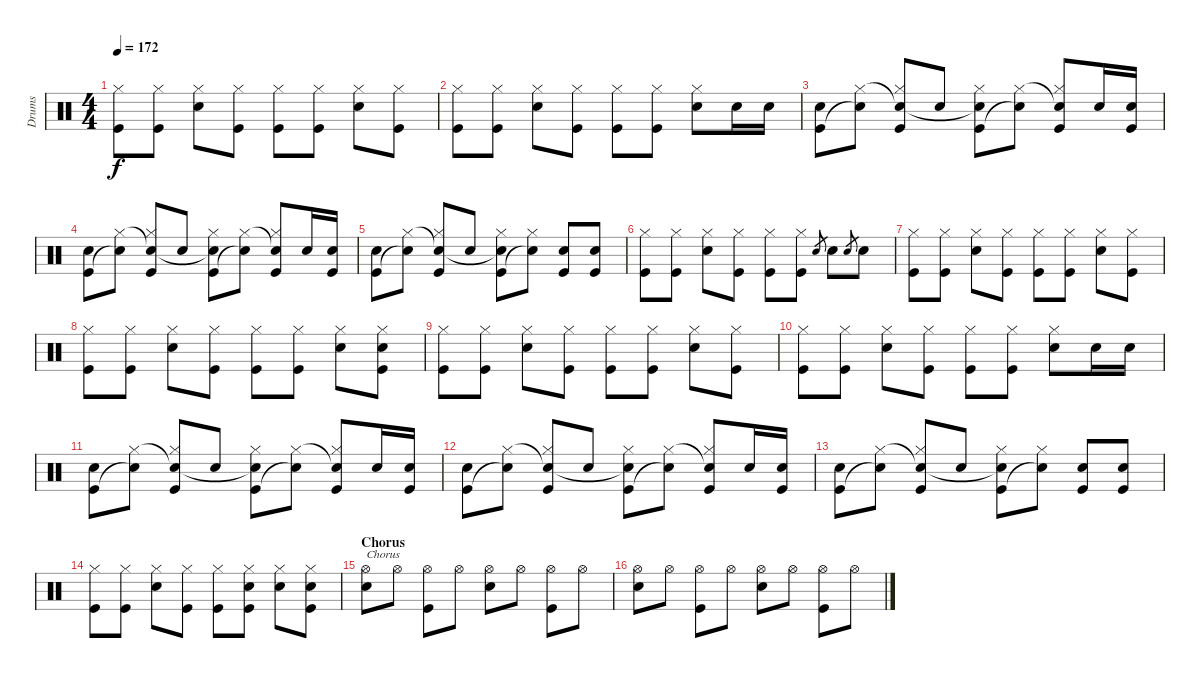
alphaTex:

\track ("Drums" "Drums") {instrument percussion}
\staff {score}
\articulation defaults
\ts (4 4)
\tempo 172
\clef neutral
\ks c
("Kick (hit)" "Hi-Hat (closed)").8{dy f} ("Kick (hit)" "Hi-Hat (closed)").8 ("Snare (hit) 2" "Hi-Hat (closed)").8 ("Kick (hit)" "Hi-Hat (closed)").8 ("Kick (hit)" "Hi-Hat (closed)").8 ("Kick (hit)" "Hi-Hat (closed)").8 ("Snare (hit) 2" "Hi-Hat (closed)").8 ("Kick (hit)" "Hi-Hat (closed)").8 |
("Kick (hit)" "Hi-Hat (closed)").8 ("Kick (hit)" "Hi-Hat (closed)").8 ("Snare (hit) 2" "Hi-Hat (closed)").8 ("Kick (hit)" "Hi-Hat (closed)").8 ("Kick (hit)" "Hi-Hat (closed)").8 ("Kick (hit)" "Hi-Hat (closed)").8 ("Snare (hit) 2" "Hi-Hat (closed)").8 "Snare (hit) 2".16 "Snare (hit) 2".16 |
("Kick (hit)" "Snare (hit) 2").8 ("Snare (hit)"{t} "Hi-Hat (closed)").8 ("Kick (hit)" "Snare (hit) 2"{t} "Hi-Hat (closed)").8 "Snare (hit) 2".8 ("Kick (hit)" "Snare (hit)"{t} "Hi-Hat (closed)").8 ("Snare (hit)"{t} "Hi-Hat (closed)").8 ("Kick (hit)" "Snare (hit)"{t} "Hi-Hat (closed)").8 "Snare (hit) 2".16 ("Kick (hit)" "Snare (hit) 2").16 |
("Kick (hit)" "Snare (hit) 2").8 ("Snare (hit)"{t} "Hi-Hat (closed)").8 ("Kick (hit)" "Snare (hit) 2"{t} "Hi-Hat (closed)").8 "Snare (hit) 2".8 ("Kick (hit)" "Snare (hit)"{t} "Hi-Hat (closed)").8 ("Snare (hit)"{t} "Hi-Hat (closed)").8 ("Kick (hit)" "Snare (hit)"{t} "Hi-Hat (closed)").8 "Snare (hit) 2".16 ("Kick (hit)" "Snare (hit) 2").16 |
("Kick (hit)" "Snare (hit) 2").8 ("Snare (hit)"{t} "Hi-Hat (closed)").8 ("Kick (hit)" "Snare (hit) 2"{t} "Hi-Hat (closed)").8 "Snare (hit) 2".8 ("Kick (hit)" "Snare (hit)"{t} "Hi-Hat (closed)").8 ("Snare (hit)"{t} "Hi-Hat (closed)").8 ("Kick (hit)" "Snare (hit) 2").8 ("Kick (hit)" "Snare (hit) 2").8 |
("Kick (hit)" "Hi-Hat (closed)").8 ("Kick (hit)" "Hi-Hat (closed)").8 ("Snare (hit) 2" "Hi-Hat (closed)").8 ("Kick (hit)" "Hi-Hat (closed)").8 ("Kick (hit)" "Hi-Hat (closed)").8 ("Kick (hit)" "Hi-Hat (closed)").8 "Snare (hit) 2".8{gr} "Snare (hit) 2".8 "Snare (hit) 2".8{gr} "Snare (hit) 2".8 |
("Kick (hit)" "Hi-Hat (closed)").8 ("Kick (hit)" "Hi-Hat (closed)").8 ("Snare (hit) 2" "Hi-Hat (closed)").8 ("Kick (hit)" "Hi-Hat (closed)").8 ("Kick (hit)" "Hi-Hat (closed)").8 ("Kick (hit)" "Hi-Hat (closed)").8 ("Snare (hit) 2" "Hi-Hat (closed)").8 ("Kick (hit)" "Hi-Hat (closed)").8 |
("Kick (hit)" "Hi-Hat (closed)").8 ("Kick (hit)" "Hi-Hat (closed)").8 ("Snare (hit) 2" "Hi-Hat (closed)").8 ("Kick (hit)" "Hi-Hat (closed)").8 ("Kick (hit)" "Hi-Hat (closed)").8 ("Kick (hit)" "Hi-Hat (closed)").8 ("Snare (hit) 2" "Hi-Hat (closed)").8 ("Kick (hit)" "Snare (hit) 2" "Hi-Hat (closed)").8 |
("Kick (hit)" "Hi-Hat (closed)").8 ("Kick (hit)" "Hi-Hat (closed)").8 ("Snare (hit) 2" "Hi-Hat (closed)").8 ("Kick (hit)" "Hi-Hat (closed)").8 ("Kick (hit)" "Hi-Hat (closed)").8 ("Kick (hit)" "Hi-Hat (closed)").8 ("Snare (hit) 2" "Hi-Hat (closed)").8 ("Kick (hit)" "Hi-Hat (closed)").8 |
("Kick (hit)" "Hi-Hat (closed)").8 ("Kick (hit)" "Hi-Hat (closed)").8 ("Snare (hit) 2" "Hi-Hat (closed)").8 ("Kick (hit)" "Hi-Hat (closed)").8 ("Kick (hit)" "Hi-Hat (closed)").8 ("Kick (hit)" "Hi-Hat (closed)").8 ("Snare (hit) 2" "Hi-Hat (closed)").8 "Snare (hit) 2".16 "Snare (hit) 2".16 |
("Kick (hit)" "Snare (hit) 2").8 ("Snare (hit)"{t} "Hi-Hat (closed)").8 ("Kick (hit)" "Snare (hit) 2"{t} "Hi-Hat (closed)").8 "Snare (hit) 2".8 ("Kick (hit)" "Snare (hit)"{t} "Hi-Hat (closed)").8 ("Snare (hit)"{t} "Hi-Hat (closed)").8 ("Kick (hit)" "Snare (hit)"{t} "Hi-Hat (closed)").8 "Snare (hit) 2".16 ("Kick (hit)" "Snare (hit) 2").16 |
("Kick (hit)" "Snare (hit) 2").8 ("Snare (hit)"{t} "Hi-Hat (closed)").8 ("Kick (hit)" "Snare (hit) 2"{t} "Hi-Hat (closed)").8 "Snare (hit) 2".8 ("Kick (hit)" "Snare (hit)"{t} "Hi-Hat (closed)").8 ("Snare (hit)"{t} "Hi-Hat (closed)").8 ("Kick (hit)" "Snare (hit)"{t} "Hi-Hat (closed)").8 "Snare (hit) 2".16 ("Kick (hit)" "Snare (hit) 2").16 |
("Kick (hit)" "Snare (hit) 2").8 ("Snare (hit)"{t} "Hi-Hat (closed)").8 ("Kick (hit)" "Snare (hit) 2"{t} "Hi-Hat (closed)").8 "Snare (hit) 2".8 ("Kick (hit)" "Snare (hit)"{t} "Hi-Hat (closed)").8 ("Snare (hit)"{t} "Hi-Hat (closed)").8 ("Kick (hit)" "Snare (hit) 2").8 ("Kick (hit)" "Snare (hit) 2").8 |
("Kick (hit)" "Hi-Hat (closed)").8 ("Kick (hit)" "Hi-Hat (closed)").8 ("Snare (hit) 2" "Hi-Hat (closed)").8 ("Kick (hit)" "Hi-Hat (closed)").8 ("Kick (hit)" "Hi-Hat (closed)").8 ("Kick (hit)" "Snare (hit) 2" "Hi-Hat (closed)").8 ("Snare (hit) 2" "Hi-Hat (closed)").8 ("Kick (hit)" "Snare (hit) 2" "Hi-Hat (closed)").8 |
\section ("" "Chorus")
("Snare (hit) 2" "Hi-Hat (open)").8{txt "Chorus"} "Hi-Hat (open)".8 ("Kick (hit)" "Hi-Hat (open)").8 "Hi-Hat (open)".8 ("Snare (hit) 2" "Hi-Hat (open)").8 "Hi-Hat (open)".8 ("Kick (hit)" "Hi-Hat (open)").8 "Hi-Hat (open)".8 |
("Snare (hit) 2" "Hi-Hat (open)").8 "Hi-Hat (open)".8 ("Kick (hit)" "Hi-Hat (open)").8 "Hi-Hat (open)".8 ("Snare (hit) 2" "Hi-Hat (open)").8 "Hi-Hat (open)".8 ("Kick (hit)" "Hi-Hat (open)").8 "Hi-Hat (open)".8
